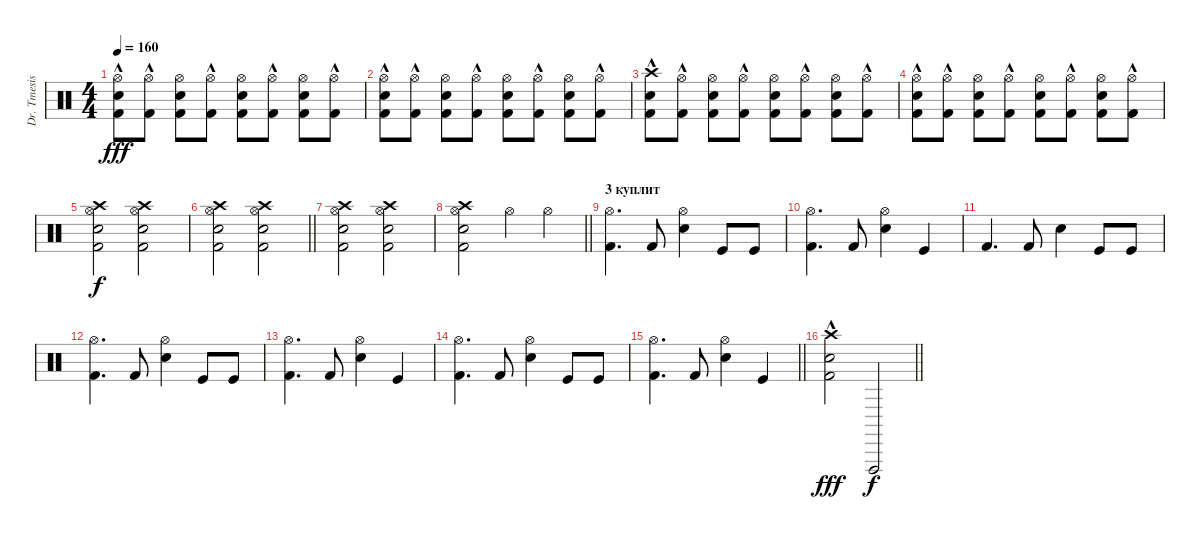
\track ("Dr. Tmesis" "Dr. Tmesis") {instrument percussion}
\staff {score}
\articulation defaults
\ts (4 4)
\tempo 160
\clef neutral
\ks c
("Kick (hit) 2"{hac} "Snare (hit) 2" "Hi-Hat (open)").8{dy fff} ("Kick (hit) 2"{hac} "Hi-Hat (open)").8 ("Snare (hit) 2" "Hi-Hat (open)" "Kick (hit) 2").8 ("Kick (hit) 2"{hac} "Hi-Hat (open)").8 ("Snare (hit) 2" "Hi-Hat (open)" "Kick (hit) 2").8 ("Kick (hit) 2"{hac} "Hi-Hat (open)").8 ("Snare (hit) 2" "Hi-Hat (open)" "Kick (hit) 2").8 ("Kick (hit) 2"{hac} "Hi-Hat (open)").8 |
("Kick (hit) 2"{hac} "Snare (hit) 2" "Hi-Hat (open)").8 ("Kick (hit) 2"{hac} "Hi-Hat (open)").8 ("Snare (hit) 2" "Hi-Hat (open)" "Kick (hit) 2").8 ("Kick (hit) 2"{hac} "Hi-Hat (open)").8 ("Snare (hit) 2" "Hi-Hat (open)" "Kick (hit) 2").8 ("Kick (hit) 2"{hac} "Hi-Hat (open)").8 ("Snare (hit) 2" "Hi-Hat (open)" "Kick (hit) 2").8 ("Kick (hit) 2"{hac} "Hi-Hat (open)").8 |
("Kick (hit) 2"{hac} "Snare (hit) 2" "Crash high (hit)").8 ("Kick (hit) 2"{hac} "Hi-Hat (open)").8 ("Snare (hit) 2" "Hi-Hat (open)" "Kick (hit) 2").8 ("Kick (hit) 2"{hac} "Hi-Hat (open)").8 ("Snare (hit) 2" "Hi-Hat (open)" "Kick (hit) 2").8 ("Kick (hit) 2"{hac} "Hi-Hat (open)").8 ("Snare (hit) 2" "Hi-Hat (open)" "Kick (hit) 2").8 ("Kick (hit) 2"{hac} "Hi-Hat (open)").8 |
("Kick (hit) 2"{hac} "Snare (hit) 2" "Hi-Hat (open)").8 ("Kick (hit) 2"{hac} "Hi-Hat (open)").8 ("Snare (hit) 2" "Hi-Hat (open)" "Kick (hit) 2").8 ("Kick (hit) 2"{hac} "Hi-Hat (open)").8 ("Snare (hit) 2" "Hi-Hat (open)" "Kick (hit) 2").8 ("Kick (hit) 2"{hac} "Hi-Hat (open)").8 ("Snare (hit) 2" "Hi-Hat (open)" "Kick (hit) 2").8 ("Kick (hit) 2"{hac} "Hi-Hat (open)").8 |
("Kick (hit) 2" "Snare (hit) 2" "Crash high (hit)" "Hi-Hat (open)").2{dy f} ("Kick (hit) 2" "Snare (hit) 2" "Crash high (hit)" "Hi-Hat (open)").2 |
\barLineRight lightlight
("Kick (hit) 2" "Snare (hit) 2" "Crash high (hit)" "Hi-Hat (open)").2 ("Kick (hit) 2" "Snare (hit) 2" "Crash high (hit)" "Hi-Hat (open)").2 |
("Kick (hit) 2" "Snare (hit) 2" "Crash high (hit)" "Hi-Hat (open)").2 ("Kick (hit) 2" "Snare (hit) 2" "Crash high (hit)" "Hi-Hat (open)").2 |
\barLineRight lightlight
("Kick (hit) 2" "Snare (hit) 2" "Crash high (hit)" "Hi-Hat (open)").2 "Hi-Hat (open)".4 "Hi-Hat (open)".4 |
\section ("" "3 куплит ")
("Kick (hit) 2" "Hi-Hat (open)").4{d} "Kick (hit) 2".8 ("Snare (hit) 2" "Hi-Hat (open)").4 "Kick (hit)".8 "Kick (hit)".8 |
("Kick (hit) 2" "Hi-Hat (open)").4{d} "Kick (hit) 2".8 ("Snare (hit) 2" "Hi-Hat (open)").4 "Kick (hit)".4 |
"Kick (hit) 2".4{d} "Kick (hit) 2".8 "Snare (hit) 2".4 "Kick (hit)".8 "Kick (hit)".8 |
("Kick (hit) 2" "Hi-Hat (open)").4{d} "Kick (hit) 2".8 ("Snare (hit) 2" "Hi-Hat (open)").4 "Kick (hit)".8 "Kick (hit)".8 |
("Kick (hit) 2" "Hi-Hat (open)").4{d} "Kick (hit) 2".8 ("Snare (hit) 2" "Hi-Hat (open)").4 "Kick (hit)".4 |
("Kick (hit) 2" "Hi-Hat (open)").4{d} "Kick (hit) 2".8 ("Snare (hit) 2" "Hi-Hat (open)").4 "Kick (hit)".8 "Kick (hit)".8 |
\barLineRight lightlight
("Kick (hit) 2" "Hi-Hat (open)").4{d} "Kick (hit) 2".8 ("Snare (hit) 2" "Hi-Hat (open)").4 "Kick (hit)".4 |
\barLineRight lightlight
("Kick (hit) 2"{hac} "Snare (hit) 2" "Crash high (hit)").2{dy fff} "Vibraslap (hit)".2{dy f}
